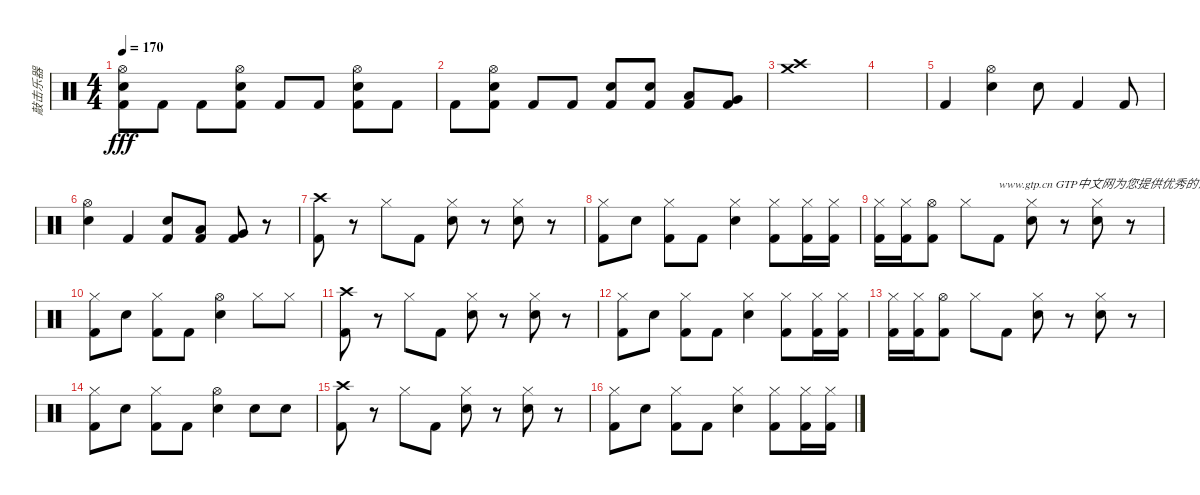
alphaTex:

\track ("敲击乐器" "敲击乐器") {instrument percussion}
\staff {score}
\articulation defaults
\ts (4 4)
\tempo 170
\clef neutral
\ks c
("Hi-Hat (open)" "Electric Snare (hit)" "Kick (hit) 2").8{dy fff} "Kick (hit) 2".8 "Kick (hit) 2".8 ("Hi-Hat (open)" "Electric Snare (hit)" "Kick (hit) 2").8 "Kick (hit) 2".8 "Kick (hit) 2".8 ("Hi-Hat (open)" "Electric Snare (hit)" "Kick (hit) 2").8 "Kick (hit) 2".8 |
"Kick (hit) 2".8 ("Hi-Hat (open)" "Electric Snare (hit)" "Kick (hit) 2").8 "Kick (hit) 2".8 "Kick (hit) 2".8 ("Electric Snare (hit)" "Kick (hit) 2").8 ("Electric Snare (hit)" "Kick (hit) 2").8 ("Low Tom (hit)" "Kick (hit) 2").8 ("Very Low Tom (hit)" "Kick (hit) 2").8 |
("Crash high (hit)" "Crash medium (hit)").1 |
|
"Kick (hit) 2".4 ("Hi-Hat (open)" "Electric Snare (hit)").4 "Electric Snare (hit)".8 "Kick (hit) 2".4 "Kick (hit) 2".8 |
("Hi-Hat (open)" "Electric Snare (hit)").4 "Kick (hit) 2".4 ("Electric Snare (hit)" "Kick (hit) 2").8 ("Low Tom (hit)" "Kick (hit) 2").8 ("Very Low Tom (hit)" "Kick (hit) 2").8 r.8 |
("Crash high (hit)" "Kick (hit) 2").8 r.8 "Hi-Hat (closed)".8 "Kick (hit) 2".8 ("Hi-Hat (closed)" "Electric Snare (hit)").8 r.8 ("Hi-Hat (closed)" "Electric Snare (hit)").8 r.8 |
("Hi-Hat (closed)" "Kick (hit) 2").8 "Electric Snare (hit)".8 ("Hi-Hat (closed)" "Kick (hit) 2").8 "Kick (hit) 2".8 ("Hi-Hat (closed)" "Electric Snare (hit)").4 ("Hi-Hat (closed)" "Kick (hit) 2").8 ("Hi-Hat (closed)" "Kick (hit) 2").16 ("Hi-Hat (closed)" "Kick (hit) 2").16 |
("Hi-Hat (closed)" "Kick (hit) 2").16 ("Hi-Hat (closed)" "Kick (hit) 2").16 ("Hi-Hat (open)" "Kick (hit) 2").8 "Hi-Hat (closed)".8 "Kick (hit) 2".8{txt "www.gtp.cn GTP中文网为您提供优秀的谱子"} ("Hi-Hat (closed)" "Electric Snare (hit)").8 r.8 ("Hi-Hat (closed)" "Electric Snare (hit)").8 r.8 |
("Hi-Hat (closed)" "Kick (hit) 2").8 "Electric Snare (hit)".8 ("Hi-Hat (closed)" "Kick (hit) 2").8 "Kick (hit) 2".8 ("Hi-Hat (open)" "Electric Snare (hit)").4 "Hi-Hat (closed)".8 "Hi-Hat (closed)".8 |
("Crash high (hit)" "Kick (hit) 2").8 r.8 "Hi-Hat (closed)".8 "Kick (hit) 2".8 ("Hi-Hat (closed)" "Electric Snare (hit)").8 r.8 ("Hi-Hat (closed)" "Electric Snare (hit)").8 r.8 |
("Hi-Hat (closed)" "Kick (hit) 2").8 "Electric Snare (hit)".8 ("Hi-Hat (closed)" "Kick (hit) 2").8 "Kick (hit) 2".8 ("Hi-Hat (closed)" "Electric Snare (hit)").4 ("Hi-Hat (closed)" "Kick (hit) 2").8 ("Hi-Hat (closed)" "Kick (hit) 2").16 ("Hi-Hat (closed)" "Kick (hit) 2").16 |
("Hi-Hat (closed)" "Kick (hit) 2").16 ("Hi-Hat (closed)" "Kick (hit) 2").16 ("Hi-Hat (open)" "Kick (hit) 2").8 "Hi-Hat (closed)".8 "Kick (hit) 2".8 ("Hi-Hat (closed)" "Electric Snare (hit)").8 r.8 ("Hi-Hat (closed)" "Electric Snare (hit)").8 r.8 |
("Hi-Hat (closed)" "Kick (hit) 2").8 "Electric Snare (hit)".8 ("Hi-Hat (closed)" "Kick (hit) 2").8 "Kick (hit) 2".8 ("Hi-Hat (open)" "Electric Snare (hit)").4 "Electric Snare (hit)".8 "Electric Snare (hit)".8 |
("Crash high (hit)" "Kick (hit) 2").8 r.8 "Hi-Hat (closed)".8 "Kick (hit) 2".8 ("Hi-Hat (closed)" "Electric Snare (hit)").8 r.8 ("Hi-Hat (closed)" "Electric Snare (hit)").8 r.8 |
("Hi-Hat (closed)" "Kick (hit) 2").8 "Electric Snare (hit)".8 ("Hi-Hat (closed)" "Kick (hit) 2").8 "Kick (hit) 2".8 ("Hi-Hat (closed)" "Electric Snare (hit)").4 ("Hi-Hat (closed)" "Kick (hit) 2").8 ("Hi-Hat (closed)" "Kick (hit) 2").16 ("Hi-Hat (closed)" "Kick (hit) 2").16
